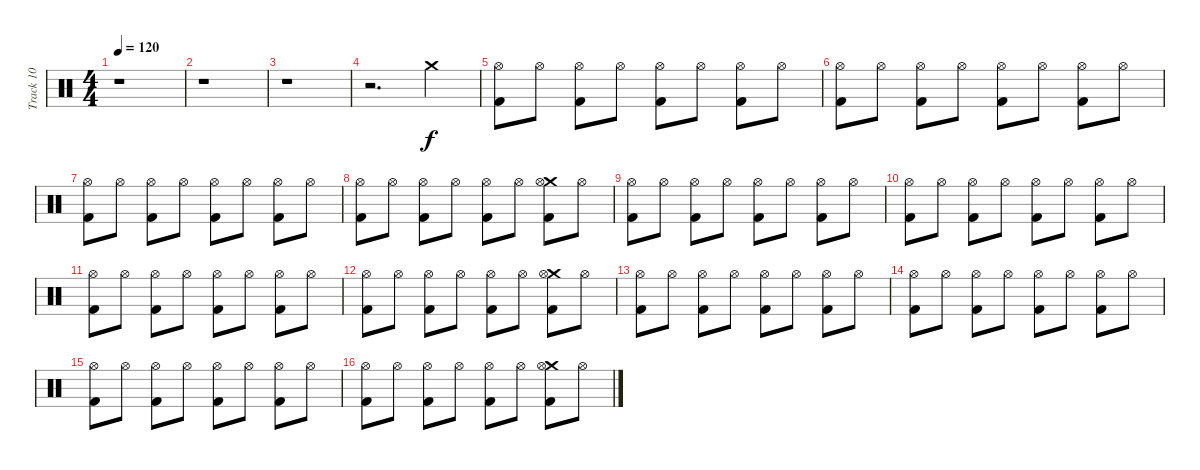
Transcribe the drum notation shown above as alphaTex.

\track ("Track 10" "Track 10") {instrument percussion}
\staff {score}
\articulation defaults
\ts (4 4)
\tempo 120
\clef neutral
\ks c
r.1{dy f} |
r.1 |
r.1 |
r.2{d} "Crash medium (hit)".4 |
("Hi-Hat (open)" "Kick (hit) 2").8 "Hi-Hat (open)".8 ("Hi-Hat (open)" "Kick (hit) 2").8 "Hi-Hat (open)".8 ("Hi-Hat (open)" "Kick (hit) 2").8 "Hi-Hat (open)".8 ("Hi-Hat (open)" "Kick (hit) 2").8 "Hi-Hat (open)".8 |
("Hi-Hat (open)" "Kick (hit) 2").8 "Hi-Hat (open)".8 ("Hi-Hat (open)" "Kick (hit) 2").8 "Hi-Hat (open)".8 ("Hi-Hat (open)" "Kick (hit) 2").8 "Hi-Hat (open)".8 ("Hi-Hat (open)" "Kick (hit) 2").8 "Hi-Hat (open)".8 |
("Hi-Hat (open)" "Kick (hit) 2").8 "Hi-Hat (open)".8 ("Hi-Hat (open)" "Kick (hit) 2").8 "Hi-Hat (open)".8 ("Hi-Hat (open)" "Kick (hit) 2").8 "Hi-Hat (open)".8 ("Hi-Hat (open)" "Kick (hit) 2").8 "Hi-Hat (open)".8 |
("Hi-Hat (open)" "Kick (hit) 2").8 "Hi-Hat (open)".8 ("Hi-Hat (open)" "Kick (hit) 2").8 "Hi-Hat (open)".8 ("Hi-Hat (open)" "Kick (hit) 2").8 "Hi-Hat (open)".8 ("Crash medium (hit)" "Hi-Hat (open)" "Kick (hit) 2").8 "Hi-Hat (open)".8 |
("Hi-Hat (open)" "Kick (hit) 2").8 "Hi-Hat (open)".8 ("Hi-Hat (open)" "Kick (hit) 2").8 "Hi-Hat (open)".8 ("Hi-Hat (open)" "Kick (hit) 2").8 "Hi-Hat (open)".8 ("Hi-Hat (open)" "Kick (hit) 2").8 "Hi-Hat (open)".8 |
("Hi-Hat (open)" "Kick (hit) 2").8 "Hi-Hat (open)".8 ("Hi-Hat (open)" "Kick (hit) 2").8 "Hi-Hat (open)".8 ("Hi-Hat (open)" "Kick (hit) 2").8 "Hi-Hat (open)".8 ("Hi-Hat (open)" "Kick (hit) 2").8 "Hi-Hat (open)".8 |
("Hi-Hat (open)" "Kick (hit) 2").8 "Hi-Hat (open)".8 ("Hi-Hat (open)" "Kick (hit) 2").8 "Hi-Hat (open)".8 ("Hi-Hat (open)" "Kick (hit) 2").8 "Hi-Hat (open)".8 ("Hi-Hat (open)" "Kick (hit) 2").8 "Hi-Hat (open)".8 |
("Hi-Hat (open)" "Kick (hit) 2").8 "Hi-Hat (open)".8 ("Hi-Hat (open)" "Kick (hit) 2").8 "Hi-Hat (open)".8 ("Hi-Hat (open)" "Kick (hit) 2").8 "Hi-Hat (open)".8 ("Crash medium (hit)" "Hi-Hat (open)" "Kick (hit) 2").8 "Hi-Hat (open)".8 |
("Hi-Hat (open)" "Kick (hit) 2").8 "Hi-Hat (open)".8 ("Hi-Hat (open)" "Kick (hit) 2").8 "Hi-Hat (open)".8 ("Hi-Hat (open)" "Kick (hit) 2").8 "Hi-Hat (open)".8 ("Hi-Hat (open)" "Kick (hit) 2").8 "Hi-Hat (open)".8 |
("Hi-Hat (open)" "Kick (hit) 2").8 "Hi-Hat (open)".8 ("Hi-Hat (open)" "Kick (hit) 2").8 "Hi-Hat (open)".8 ("Hi-Hat (open)" "Kick (hit) 2").8 "Hi-Hat (open)".8 ("Hi-Hat (open)" "Kick (hit) 2").8 "Hi-Hat (open)".8 |
("Hi-Hat (open)" "Kick (hit) 2").8 "Hi-Hat (open)".8 ("Hi-Hat (open)" "Kick (hit) 2").8 "Hi-Hat (open)".8 ("Hi-Hat (open)" "Kick (hit) 2").8 "Hi-Hat (open)".8 ("Hi-Hat (open)" "Kick (hit) 2").8 "Hi-Hat (open)".8 |
("Hi-Hat (open)" "Kick (hit) 2").8 "Hi-Hat (open)".8 ("Hi-Hat (open)" "Kick (hit) 2").8 "Hi-Hat (open)".8 ("Hi-Hat (open)" "Kick (hit) 2").8 "Hi-Hat (open)".8 ("Crash medium (hit)" "Hi-Hat (open)" "Kick (hit) 2").8 "Hi-Hat (open)".8
